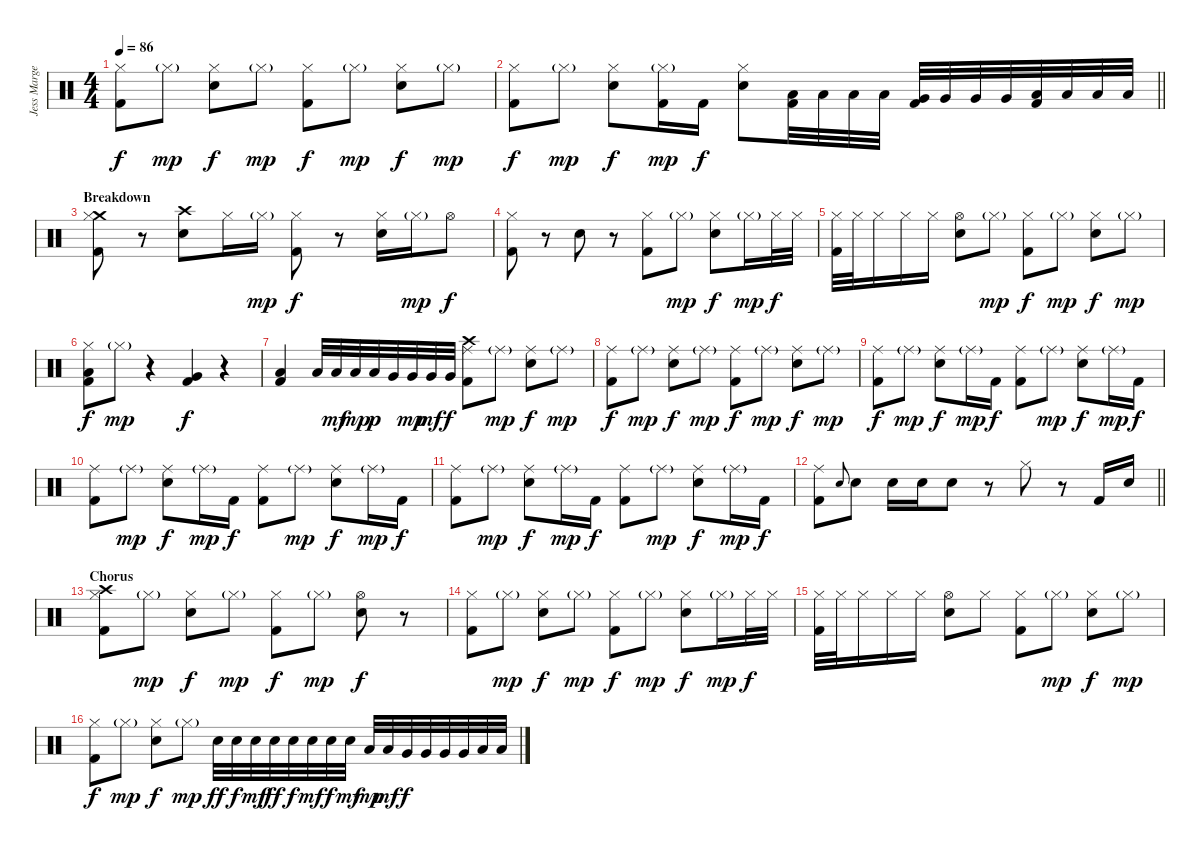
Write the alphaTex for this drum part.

\track ("Jess Margera (Drums)" "Jess Marge") {instrument percussion}
\staff {score}
\articulation defaults
\ts (4 4)
\tempo 86
\clef neutral
\ks c
("Hi-Hat (closed)" "Kick (hit) 2").8{dy f} "Hi-Hat (closed)"{g}.8{dy mp} ("Hi-Hat (closed)" "Snare (hit) 2").8{dy f} "Hi-Hat (closed)"{g}.8{dy mp} ("Hi-Hat (closed)" "Kick (hit) 2").8{dy f} "Hi-Hat (closed)"{g}.8{dy mp} ("Hi-Hat (closed)" "Snare (hit) 2").8{dy f} "Hi-Hat (closed)"{g}.8{dy mp} |
\barLineRight lightlight
("Hi-Hat (closed)" "Kick (hit) 2").8{dy f} "Hi-Hat (closed)"{g}.8{dy mp} ("Hi-Hat (closed)" "Snare (hit) 2").8{dy f} ("Hi-Hat (closed)"{g} "Kick (hit) 2").16{dy mp} "Kick (hit) 2".16{dy f} ("Hi-Hat (closed)" "Snare (hit) 2").8 ("Low Tom (hit)" "Kick (hit) 2").32 "Low Tom (hit)".32 "Low Tom (hit)".32 "Low Tom (hit)".32 ("Very Low Tom (hit)" "Kick (hit) 2").32 "Very Low Tom (hit)".32 "Very Low Tom (hit)".32 "Very Low Tom (hit)".32 ("Low Floor Tom (hit)" "Kick (hit) 2").32 "Low Floor Tom (hit)".32 "Low Floor Tom (hit)".32 "Low Floor Tom (hit)".32 |
\section ("" "Breakdown")
("Crash medium (hit)" "Hi-Hat (closed)" "Kick (hit) 2").8 r.8 ("Crash high (hit)" "Snare (hit) 2").8 "Hi-Hat (closed)".16 "Hi-Hat (closed)"{g}.16{dy mp} ("Hi-Hat (closed)" "Kick (hit) 2").8{dy f} r.8 ("Hi-Hat (closed)" "Snare (hit) 2").16 "Hi-Hat (closed)"{g}.16{dy mp} "Hi-Hat (open)".8{dy f} |
("Hi-Hat (closed)" "Kick (hit) 2").8 r.8 "Snare (hit) 2".8 r.8 ("Hi-Hat (closed)" "Kick (hit) 2").8 "Hi-Hat (closed)"{g}.8{dy mp} ("Hi-Hat (closed)" "Snare (hit) 2").8{dy f} "Hi-Hat (closed)"{g}.16{dy mp} "Hi-Hat (closed)".32{dy f} "Hi-Hat (closed)".32 |
("Hi-Hat (closed)" "Kick (hit) 2").32 "Hi-Hat (closed)".32 "Hi-Hat (closed)".16 "Hi-Hat (closed)".16 "Hi-Hat (closed)".16 ("Hi-Hat (open)" "Snare (hit) 2").8 "Hi-Hat (closed)"{g}.8{dy mp} ("Hi-Hat (closed)" "Kick (hit) 2").8{dy f} "Hi-Hat (closed)"{g}.8{dy mp} ("Hi-Hat (closed)" "Snare (hit) 2").8{dy f} "Hi-Hat (closed)"{g}.8{dy mp} |
("Hi-Hat (closed)" "Low Tom (hit)" "Kick (hit) 2").8{dy f} "Hi-Hat (closed)"{g}.8{dy mp} r.4 ("Very Low Tom (hit)" "Kick (hit) 2").4{dy f} r.4 |
("Low Floor Tom (hit)" "Kick (hit) 2").4 "Low Tom (hit)".32 "Low Tom (hit)".32{dy mf} "Low Tom (hit)".32{dy mp} "Low Tom (hit)".32{dy p} "Very Low Tom (hit)".32 "Very Low Tom (hit)".32{dy mp} "Very Low Tom (hit)".32{dy mf} "Very Low Tom (hit)".32{dy f} ("Crash high (hit)" "Ride (middle)" "Kick (hit) 2").8 "Ride (middle)"{g}.8{dy mp} ("Ride (middle)" "Snare (hit) 2").8{dy f} "Ride (middle)"{g}.8{dy mp} |
("Ride (middle)" "Kick (hit) 2").8{dy f} "Ride (middle)"{g}.8{dy mp} ("Ride (middle)" "Snare (hit) 2").8{dy f} "Ride (middle)"{g}.8{dy mp} ("Ride (middle)" "Kick (hit) 2").8{dy f} "Ride (middle)"{g}.8{dy mp} ("Ride (middle)" "Snare (hit) 2").8{dy f} "Ride (middle)"{g}.8{dy mp} |
("Ride (middle)" "Kick (hit) 2").8{dy f} "Ride (middle)"{g}.8{dy mp} ("Ride (middle)" "Snare (hit) 2").8{dy f} "Ride (middle)"{g}.16{dy mp} "Kick (hit) 2".16{dy f} ("Ride (middle)" "Kick (hit) 2").8 "Ride (middle)"{g}.8{dy mp} ("Ride (middle)" "Snare (hit) 2").8{dy f} "Ride (middle)"{g}.16{dy mp} "Kick (hit) 2".16{dy f} |
("Ride (middle)" "Kick (hit) 2").8 "Ride (middle)"{g}.8{dy mp} ("Ride (middle)" "Snare (hit) 2").8{dy f} "Ride (middle)"{g}.16{dy mp} "Kick (hit) 2".16{dy f} ("Ride (middle)" "Kick (hit) 2").8 "Ride (middle)"{g}.8{dy mp} ("Ride (middle)" "Snare (hit) 2").8{dy f} "Ride (middle)"{g}.16{dy mp} "Kick (hit) 2".16{dy f} |
("Ride (middle)" "Kick (hit) 2").8 "Ride (middle)"{g}.8{dy mp} ("Ride (middle)" "Snare (hit) 2").8{dy f} "Ride (middle)"{g}.16{dy mp} "Kick (hit) 2".16{dy f} ("Ride (middle)" "Kick (hit) 2").8 "Ride (middle)"{g}.8{dy mp} ("Ride (middle)" "Snare (hit) 2").8{dy f} "Ride (middle)"{g}.16{dy mp} "Kick (hit) 2".16{dy f} |
\barLineRight lightlight
("Ride (middle)" "Kick (hit) 2").8 "Snare (hit) 2".8{gr onbeat} "Snare (hit) 2".8 "Snare (hit) 2".16 "Snare (hit) 2".16 "Snare (hit) 2".8 r.8 "Hi-Hat (closed)".8 r.8 "Kick (hit) 2".16 "Snare (hit) 2".16 |
\section ("" "Chorus")
("Crash high (hit)" "Hi-Hat (closed)" "Kick (hit) 2").8 "Hi-Hat (closed)"{g}.8{dy mp} ("Hi-Hat (closed)" "Snare (hit) 2").8{dy f} "Hi-Hat (closed)"{g}.8{dy mp} ("Hi-Hat (closed)" "Kick (hit) 2").8{dy f} "Hi-Hat (closed)"{g}.8{dy mp} ("Hi-Hat (open)" "Snare (hit) 2").8{dy f} r.8 |
("Hi-Hat (closed)" "Kick (hit) 2").8 "Hi-Hat (closed)"{g}.8{dy mp} ("Hi-Hat (closed)" "Snare (hit) 2").8{dy f} "Hi-Hat (closed)"{g}.8{dy mp} ("Hi-Hat (closed)" "Kick (hit) 2").8{dy f} "Hi-Hat (closed)"{g}.8{dy mp} ("Hi-Hat (closed)" "Snare (hit) 2").8{dy f} "Hi-Hat (closed)"{g}.16{dy mp} "Hi-Hat (closed)".32{dy f} "Hi-Hat (closed)".32 |
("Hi-Hat (closed)" "Kick (hit) 2").32 "Hi-Hat (closed)".32 "Hi-Hat (closed)".16 "Hi-Hat (closed)".16 "Hi-Hat (closed)".16 ("Hi-Hat (open)" "Snare (hit) 2").8 "Hi-Hat (closed)".8 ("Hi-Hat (closed)" "Kick (hit) 2").8 "Hi-Hat (closed)"{g}.8{dy mp} ("Hi-Hat (closed)" "Snare (hit) 2").8{dy f} "Hi-Hat (closed)"{g}.8{dy mp} |
("Hi-Hat (closed)" "Kick (hit) 2").8{dy f} "Hi-Hat (closed)"{g}.8{dy mp} ("Hi-Hat (closed)" "Snare (hit) 2").8{dy f} "Hi-Hat (closed)"{g}.8{dy mp} "Snare (hit) 2".32{dy ff} "Snare (hit) 2".32{dy f} "Snare (hit) 2".32{dy mf} "Snare (hit) 2".32{dy ff} "Snare (hit) 2".32{dy f} "Snare (hit) 2".32{dy mf} "Snare (hit) 2".32{dy f} "Snare (hit) 2".32{dy mf} "Low Tom (hit)".32{dy mp} "Low Tom (hit)".32{dy mf} "Very Low Tom (hit)".32{dy f} "Very Low Tom (hit)".32 "Very Low Tom (hit)".32 "Very Low Tom (hit)".32 "Low Floor Tom (hit)".32 "Low Floor Tom (hit)".32
